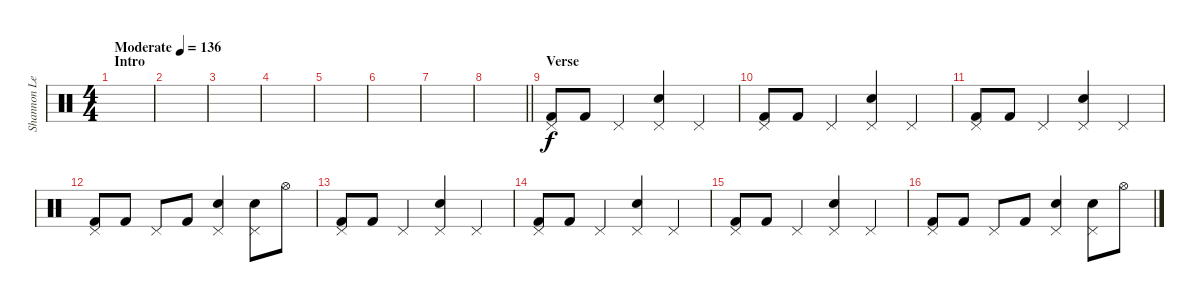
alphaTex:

\track ("Shannon Leto [Drums]" "Shannon Le") {instrument percussion}
\staff {score}
\articulation defaults
\ts (4 4)
\section ("" "Intro")
\tempo (136 "Moderate")
\clef neutral
\ks c
|
|
|
|
|
|
|
\barLineRight lightlight
|
\section ("" "Verse")
("Pedal Hi-Hat (hit)" "Kick (hit) 2").8 "Kick (hit) 2".8 "Pedal Hi-Hat (hit)".4 ("Pedal Hi-Hat (hit)" "Electric Snare (hit)").4 "Pedal Hi-Hat (hit)".4 |
("Pedal Hi-Hat (hit)" "Kick (hit) 2").8 "Kick (hit) 2".8 "Pedal Hi-Hat (hit)".4 ("Pedal Hi-Hat (hit)" "Electric Snare (hit)").4 "Pedal Hi-Hat (hit)".4 |
("Pedal Hi-Hat (hit)" "Kick (hit) 2").8 "Kick (hit) 2".8 "Pedal Hi-Hat (hit)".4 ("Pedal Hi-Hat (hit)" "Electric Snare (hit)").4 "Pedal Hi-Hat (hit)".4 |
("Pedal Hi-Hat (hit)" "Kick (hit) 2").8 "Kick (hit) 2".8 "Pedal Hi-Hat (hit)".8 "Kick (hit) 2".8 ("Pedal Hi-Hat (hit)" "Electric Snare (hit)").4 ("Pedal Hi-Hat (hit)" "Electric Snare (hit)").8 "Hi-Hat (open)".8 |
("Pedal Hi-Hat (hit)" "Kick (hit) 2").8 "Kick (hit) 2".8 "Pedal Hi-Hat (hit)".4 ("Pedal Hi-Hat (hit)" "Electric Snare (hit)").4 "Pedal Hi-Hat (hit)".4 |
("Pedal Hi-Hat (hit)" "Kick (hit) 2").8 "Kick (hit) 2".8 "Pedal Hi-Hat (hit)".4 ("Pedal Hi-Hat (hit)" "Electric Snare (hit)").4 "Pedal Hi-Hat (hit)".4 |
("Pedal Hi-Hat (hit)" "Kick (hit) 2").8 "Kick (hit) 2".8 "Pedal Hi-Hat (hit)".4 ("Pedal Hi-Hat (hit)" "Electric Snare (hit)").4 "Pedal Hi-Hat (hit)".4 |
("Pedal Hi-Hat (hit)" "Kick (hit) 2").8 "Kick (hit) 2".8 "Pedal Hi-Hat (hit)".8 "Kick (hit) 2".8 ("Pedal Hi-Hat (hit)" "Electric Snare (hit)").4 ("Pedal Hi-Hat (hit)" "Electric Snare (hit)").8 "Hi-Hat (open)".8
